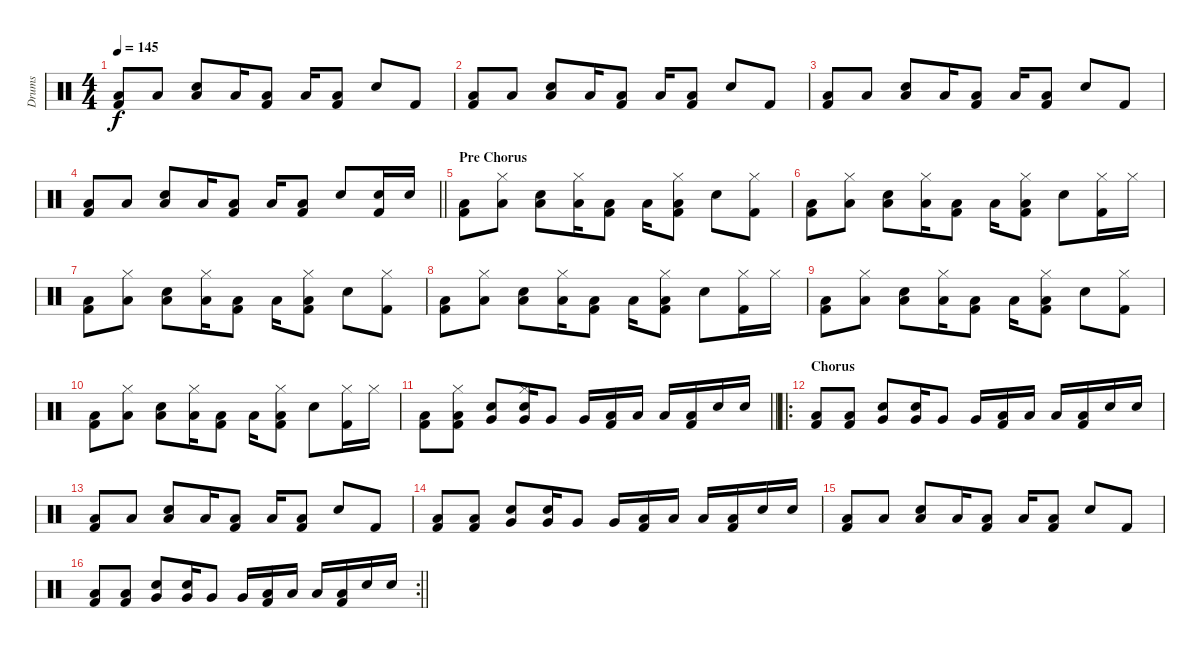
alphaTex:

\track ("Drums" "Drums") {instrument percussion}
\staff {score}
\articulation defaults
\ts (4 4)
\tempo 145
\clef neutral
\ks c
("Low Tom (hit)" "Kick (hit) 2").8{dy f} "Low Tom (hit)".8 ("Low Tom (hit)" "Snare (hit) 2").8 "Low Floor Tom (hit)".16 ("Low Floor Tom (hit)" "Kick (hit) 2").8 "Low Floor Tom (hit)".16 ("Low Floor Tom (hit)" "Kick (hit) 2").8 "Snare (hit) 2".8 "Kick (hit) 2".8 |
("Low Tom (hit)" "Kick (hit) 2").8 "Low Tom (hit)".8 ("Low Tom (hit)" "Snare (hit) 2").8 "Low Floor Tom (hit)".16 ("Low Floor Tom (hit)" "Kick (hit) 2").8 "Low Floor Tom (hit)".16 ("Low Floor Tom (hit)" "Kick (hit) 2").8 "Snare (hit) 2".8 "Kick (hit) 2".8 |
("Low Tom (hit)" "Kick (hit) 2").8 "Low Tom (hit)".8 ("Low Tom (hit)" "Snare (hit) 2").8 "Low Floor Tom (hit)".16 ("Low Floor Tom (hit)" "Kick (hit) 2").8 "Low Floor Tom (hit)".16 ("Low Floor Tom (hit)" "Kick (hit) 2").8 "Snare (hit) 2".8 "Kick (hit) 2".8 |
\barLineRight lightlight
("Low Tom (hit)" "Kick (hit) 2").8 "Low Tom (hit)".8 ("Low Tom (hit)" "Snare (hit) 2").8 "Low Floor Tom (hit)".16 ("Low Floor Tom (hit)" "Kick (hit) 2").8 "Low Floor Tom (hit)".16 ("Low Floor Tom (hit)" "Kick (hit) 2").8 "Snare (hit) 2".8 ("Snare (hit) 2" "Kick (hit) 2").16 "Snare (hit) 2".16 |
\section ("" "Pre Chorus")
("Low Tom (hit)" "Kick (hit) 2").8 ("Low Tom (hit)" "Hi-Hat (closed)").8 ("Low Tom (hit)" "Snare (hit) 2").8 ("Low Floor Tom (hit)" "Hi-Hat (closed)").16 ("Low Floor Tom (hit)" "Kick (hit) 2").8 "Low Floor Tom (hit)".16 ("Low Floor Tom (hit)" "Kick (hit) 2" "Hi-Hat (closed)").8 "Snare (hit) 2".8 ("Kick (hit) 2" "Hi-Hat (closed)").8 |
("Low Tom (hit)" "Kick (hit) 2").8 ("Low Tom (hit)" "Hi-Hat (closed)").8 ("Low Tom (hit)" "Snare (hit) 2").8 ("Low Floor Tom (hit)" "Hi-Hat (closed)").16 ("Low Floor Tom (hit)" "Kick (hit) 2").8 "Low Floor Tom (hit)".16 ("Low Floor Tom (hit)" "Kick (hit) 2" "Hi-Hat (closed)").8 "Snare (hit) 2".8 ("Kick (hit) 2" "Hi-Hat (closed)").16 "Hi-Hat (closed)".16 |
("Low Tom (hit)" "Kick (hit) 2").8 ("Low Tom (hit)" "Hi-Hat (closed)").8 ("Low Tom (hit)" "Snare (hit) 2").8 ("Low Floor Tom (hit)" "Hi-Hat (closed)").16 ("Low Floor Tom (hit)" "Kick (hit) 2").8 "Low Floor Tom (hit)".16 ("Low Floor Tom (hit)" "Kick (hit) 2" "Hi-Hat (closed)").8 "Snare (hit) 2".8 ("Kick (hit) 2" "Hi-Hat (closed)").8 |
("Low Tom (hit)" "Kick (hit) 2").8 ("Low Tom (hit)" "Hi-Hat (closed)").8 ("Low Tom (hit)" "Snare (hit) 2").8 ("Low Floor Tom (hit)" "Hi-Hat (closed)").16 ("Low Floor Tom (hit)" "Kick (hit) 2").8 "Low Floor Tom (hit)".16 ("Low Floor Tom (hit)" "Kick (hit) 2" "Hi-Hat (closed)").8 "Snare (hit) 2".8 ("Kick (hit) 2" "Hi-Hat (closed)").16 "Hi-Hat (closed)".16 |
("Low Tom (hit)" "Kick (hit) 2").8 ("Low Tom (hit)" "Hi-Hat (closed)").8 ("Low Tom (hit)" "Snare (hit) 2").8 ("Low Floor Tom (hit)" "Hi-Hat (closed)").16 ("Low Floor Tom (hit)" "Kick (hit) 2").8 "Low Floor Tom (hit)".16 ("Low Floor Tom (hit)" "Kick (hit) 2" "Hi-Hat (closed)").8 "Snare (hit) 2".8 ("Kick (hit) 2" "Hi-Hat (closed)").8 |
("Low Tom (hit)" "Kick (hit) 2").8 ("Low Tom (hit)" "Hi-Hat (closed)").8 ("Low Tom (hit)" "Snare (hit) 2").8 ("Low Floor Tom (hit)" "Hi-Hat (closed)").16 ("Low Floor Tom (hit)" "Kick (hit) 2").8 "Low Floor Tom (hit)".16 ("Low Floor Tom (hit)" "Kick (hit) 2" "Hi-Hat (closed)").8 "Snare (hit) 2".8 ("Kick (hit) 2" "Hi-Hat (closed)").16 "Hi-Hat (closed)".16 |
\barLineRight lightlight
("Low Floor Tom (hit)" "Kick (hit) 2").8 ("Low Floor Tom (hit)" "Kick (hit) 2" "Hi-Hat (closed)").8 ("Snare (hit) 2" "Very Low Tom (hit)").8 ("Snare (hit) 2" "Very Low Tom (hit)" "Hi-Hat (closed)").16 "Very Low Tom (hit)".8 "Very Low Tom (hit)".16 ("Low Tom (hit)" "Kick (hit) 2").16 "Low Tom (hit)".16 "Low Floor Tom (hit)".16 ("Low Floor Tom (hit)" "Kick (hit) 2").16 "Snare (hit) 2".16 "Snare (hit) 2".16 |
\ro
\section ("" "Chorus")
("Low Floor Tom (hit)" "Kick (hit) 2").8 ("Low Floor Tom (hit)" "Kick (hit) 2").8 ("Snare (hit) 2" "Very Low Tom (hit)").8 ("Snare (hit) 2" "Very Low Tom (hit)").16 "Very Low Tom (hit)".8 "Very Low Tom (hit)".16 ("Low Tom (hit)" "Kick (hit) 2").16 "Low Tom (hit)".16 "Low Floor Tom (hit)".16 ("Low Floor Tom (hit)" "Kick (hit) 2").16 "Snare (hit) 2".16 "Snare (hit) 2".16 |
("Low Tom (hit)" "Kick (hit) 2").8 "Low Tom (hit)".8 ("Low Tom (hit)" "Snare (hit) 2").8 "Low Floor Tom (hit)".16 ("Low Floor Tom (hit)" "Kick (hit) 2").8 "Low Floor Tom (hit)".16 ("Low Floor Tom (hit)" "Kick (hit) 2").8 "Snare (hit) 2".8 "Kick (hit) 2".8 |
("Low Floor Tom (hit)" "Kick (hit) 2").8 ("Low Floor Tom (hit)" "Kick (hit) 2").8 ("Snare (hit) 2" "Very Low Tom (hit)").8 ("Snare (hit) 2" "Very Low Tom (hit)").16 "Very Low Tom (hit)".8 "Very Low Tom (hit)".16 ("Low Tom (hit)" "Kick (hit) 2").16 "Low Tom (hit)".16 "Low Floor Tom (hit)".16 ("Low Floor Tom (hit)" "Kick (hit) 2").16 "Snare (hit) 2".16 "Snare (hit) 2".16 |
("Low Tom (hit)" "Kick (hit) 2").8 "Low Tom (hit)".8 ("Low Tom (hit)" "Snare (hit) 2").8 "Low Floor Tom (hit)".16 ("Low Floor Tom (hit)" "Kick (hit) 2").8 "Low Floor Tom (hit)".16 ("Low Floor Tom (hit)" "Kick (hit) 2").8 "Snare (hit) 2".8 "Kick (hit) 2".8 |
\rc 2
\barLineRight lightlight
("Low Floor Tom (hit)" "Kick (hit) 2").8 ("Low Floor Tom (hit)" "Kick (hit) 2").8 ("Snare (hit) 2" "Very Low Tom (hit)").8 ("Snare (hit) 2" "Very Low Tom (hit)").16 "Very Low Tom (hit)".8 "Very Low Tom (hit)".16 ("Low Tom (hit)" "Kick (hit) 2").16 "Low Tom (hit)".16 "Low Floor Tom (hit)".16 ("Low Floor Tom (hit)" "Kick (hit) 2").16 "Snare (hit) 2".16 "Snare (hit) 2".16
